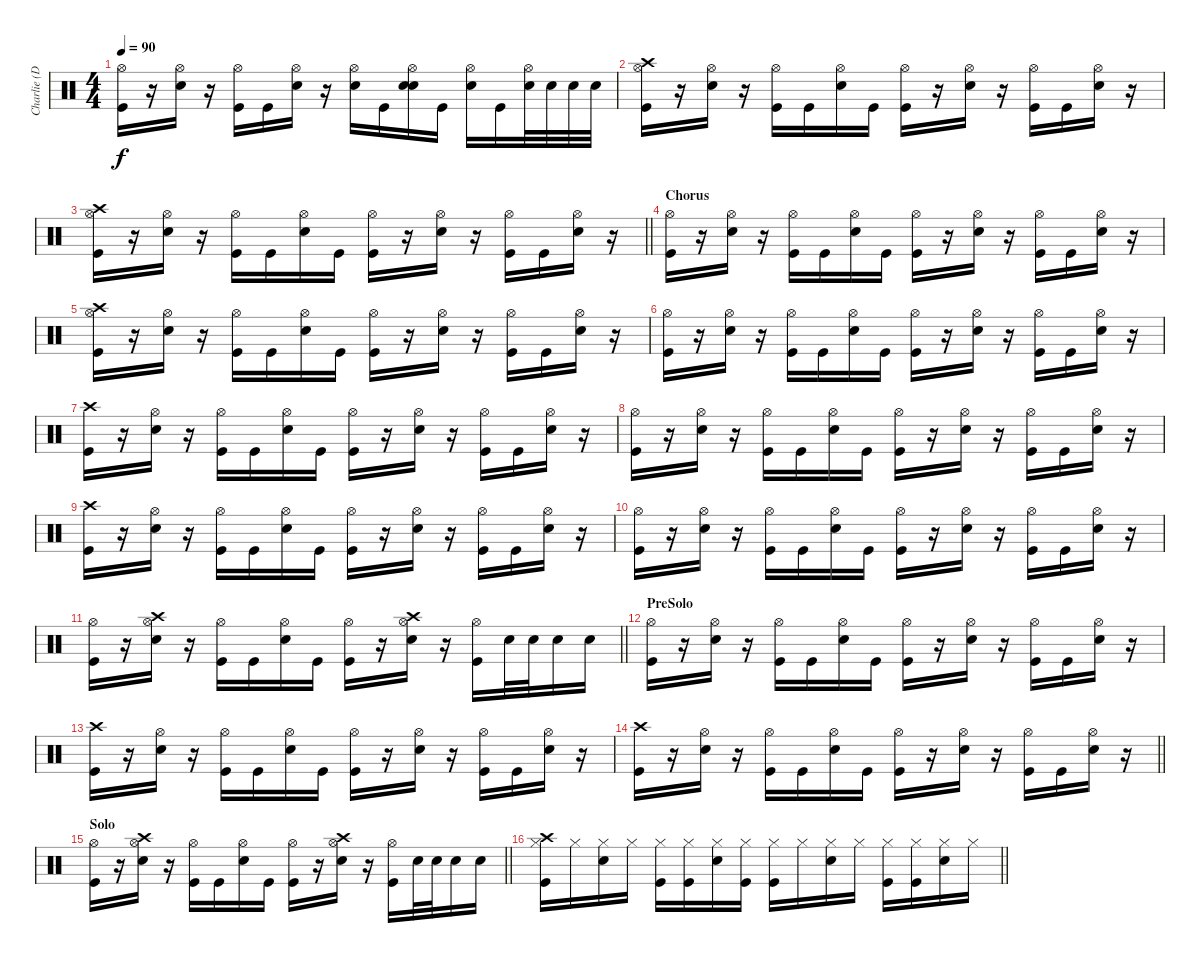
\track ("Charlie (Drums)" "Charlie (D") {instrument percussion}
\staff {score}
\articulation defaults
\ts (4 4)
\tempo 90
\clef neutral
\ks c
("Hi-Hat (open)" "Kick (hit)").16{dy f} r.16 ("Hi-Hat (open)" "Electric Snare (hit)").16 r.16 ("Hi-Hat (open)" "Kick (hit)").16 "Kick (hit)".16 ("Hi-Hat (open)" "Electric Snare (hit)").16 r.16 ("Hi-Hat (open)" "Electric Snare (hit)").16 "Kick (hit)".16 ("Hi-Hat (open)" "Electric Snare (hit)" "Electric Snare (hit)").16 "Kick (hit)".16 ("Hi-Hat (open)" "Electric Snare (hit)").16 "Kick (hit)".16 ("Hi-Hat (open)" "Electric Snare (hit)").32 "Electric Snare (hit)".32 "Electric Snare (hit)".32 "Electric Snare (hit)".32 |
("Crash high (hit)" "Hi-Hat (open)" "Kick (hit)").16 r.16 ("Hi-Hat (open)" "Electric Snare (hit)").16 r.16 ("Hi-Hat (open)" "Kick (hit)").16 "Kick (hit)".16 ("Hi-Hat (open)" "Electric Snare (hit)").16 "Kick (hit)".16 ("Hi-Hat (open)" "Kick (hit)").16 r.16 ("Hi-Hat (open)" "Electric Snare (hit)").16 r.16 ("Hi-Hat (open)" "Kick (hit)").16 "Kick (hit)".16 ("Hi-Hat (open)" "Electric Snare (hit)").16 r.16 |
\barLineRight lightlight
("Crash high (hit)" "Hi-Hat (open)" "Kick (hit)").16 r.16 ("Hi-Hat (open)" "Electric Snare (hit)").16 r.16 ("Hi-Hat (open)" "Kick (hit)").16 "Kick (hit)".16 ("Hi-Hat (open)" "Electric Snare (hit)").16 "Kick (hit)".16 ("Hi-Hat (open)" "Kick (hit)").16 r.16 ("Hi-Hat (open)" "Electric Snare (hit)").16 r.16 ("Hi-Hat (open)" "Kick (hit)").16 "Kick (hit)".16 ("Hi-Hat (open)" "Electric Snare (hit)").16 r.16 |
\section ("" "Chorus")
("Hi-Hat (open)" "Kick (hit)").16 r.16 ("Hi-Hat (open)" "Electric Snare (hit)").16 r.16 ("Hi-Hat (open)" "Kick (hit)").16 "Kick (hit)".16 ("Hi-Hat (open)" "Electric Snare (hit)").16 "Kick (hit)".16 ("Hi-Hat (open)" "Kick (hit)").16 r.16 ("Hi-Hat (open)" "Electric Snare (hit)").16 r.16 ("Hi-Hat (open)" "Kick (hit)").16 "Kick (hit)".16 ("Hi-Hat (open)" "Electric Snare (hit)").16 r.16 |
("Crash high (hit)" "Hi-Hat (open)" "Kick (hit)").16 r.16 ("Hi-Hat (open)" "Electric Snare (hit)").16 r.16 ("Hi-Hat (open)" "Kick (hit)").16 "Kick (hit)".16 ("Hi-Hat (open)" "Electric Snare (hit)").16 "Kick (hit)".16 ("Hi-Hat (open)" "Kick (hit)").16 r.16 ("Hi-Hat (open)" "Electric Snare (hit)").16 r.16 ("Hi-Hat (open)" "Kick (hit)").16 "Kick (hit)".16 ("Hi-Hat (open)" "Electric Snare (hit)").16 r.16 |
("Hi-Hat (open)" "Kick (hit)").16 r.16 ("Hi-Hat (open)" "Electric Snare (hit)").16 r.16 ("Hi-Hat (open)" "Kick (hit)").16 "Kick (hit)".16 ("Hi-Hat (open)" "Electric Snare (hit)").16 "Kick (hit)".16 ("Hi-Hat (open)" "Kick (hit)").16 r.16 ("Hi-Hat (open)" "Electric Snare (hit)").16 r.16 ("Hi-Hat (open)" "Kick (hit)").16 "Kick (hit)".16 ("Hi-Hat (open)" "Electric Snare (hit)").16 r.16 |
("Crash high (hit)" "Kick (hit)").16 r.16 ("Hi-Hat (open)" "Electric Snare (hit)").16 r.16 ("Hi-Hat (open)" "Kick (hit)").16 "Kick (hit)".16 ("Hi-Hat (open)" "Electric Snare (hit)").16 "Kick (hit)".16 ("Hi-Hat (open)" "Kick (hit)").16 r.16 ("Hi-Hat (open)" "Electric Snare (hit)").16 r.16 ("Hi-Hat (open)" "Kick (hit)").16 "Kick (hit)".16 ("Hi-Hat (open)" "Electric Snare (hit)").16 r.16 |
("Hi-Hat (open)" "Kick (hit)").16 r.16 ("Hi-Hat (open)" "Electric Snare (hit)").16 r.16 ("Hi-Hat (open)" "Kick (hit)").16 "Kick (hit)".16 ("Hi-Hat (open)" "Electric Snare (hit)").16 "Kick (hit)".16 ("Hi-Hat (open)" "Kick (hit)").16 r.16 ("Hi-Hat (open)" "Electric Snare (hit)").16 r.16 ("Hi-Hat (open)" "Kick (hit)").16 "Kick (hit)".16 ("Hi-Hat (open)" "Electric Snare (hit)").16 r.16 |
("Crash high (hit)" "Kick (hit)").16 r.16 ("Hi-Hat (open)" "Electric Snare (hit)").16 r.16 ("Hi-Hat (open)" "Kick (hit)").16 "Kick (hit)".16 ("Hi-Hat (open)" "Electric Snare (hit)").16 "Kick (hit)".16 ("Hi-Hat (open)" "Kick (hit)").16 r.16 ("Hi-Hat (open)" "Electric Snare (hit)").16 r.16 ("Hi-Hat (open)" "Kick (hit)").16 "Kick (hit)".16 ("Hi-Hat (open)" "Electric Snare (hit)").16 r.16 |
("Hi-Hat (open)" "Kick (hit)").16 r.16 ("Hi-Hat (open)" "Electric Snare (hit)").16 r.16 ("Hi-Hat (open)" "Kick (hit)").16 "Kick (hit)".16 ("Hi-Hat (open)" "Electric Snare (hit)").16 "Kick (hit)".16 ("Hi-Hat (open)" "Kick (hit)").16 r.16 ("Hi-Hat (open)" "Electric Snare (hit)").16 r.16 ("Hi-Hat (open)" "Kick (hit)").16 "Kick (hit)".16 ("Hi-Hat (open)" "Electric Snare (hit)").16 r.16 |
\barLineRight lightlight
("Hi-Hat (open)" "Kick (hit)").16 r.16 ("Crash high (hit)" "Hi-Hat (open)" "Electric Snare (hit)").16 r.16 ("Hi-Hat (open)" "Kick (hit)").16 "Kick (hit)".16 ("Hi-Hat (open)" "Electric Snare (hit)").16 "Kick (hit)".16 ("Hi-Hat (open)" "Kick (hit)").16 r.16 ("Crash high (hit)" "Hi-Hat (open)" "Electric Snare (hit)").16 r.16 ("Hi-Hat (open)" "Kick (hit)").16 "Electric Snare (hit)".32 "Electric Snare (hit)".32 "Electric Snare (hit)".16 "Electric Snare (hit)".16 |
\section ("" "PreSolo")
("Hi-Hat (open)" "Kick (hit)").16 r.16 ("Hi-Hat (open)" "Electric Snare (hit)").16 r.16 ("Hi-Hat (open)" "Kick (hit)").16 "Kick (hit)".16 ("Hi-Hat (open)" "Electric Snare (hit)").16 "Kick (hit)".16 ("Hi-Hat (open)" "Kick (hit)").16 r.16 ("Hi-Hat (open)" "Electric Snare (hit)").16 r.16 ("Hi-Hat (open)" "Kick (hit)").16 "Kick (hit)".16 ("Hi-Hat (open)" "Electric Snare (hit)").16 r.16 |
("Crash high (hit)" "Kick (hit)").16 r.16 ("Hi-Hat (open)" "Electric Snare (hit)").16 r.16 ("Hi-Hat (open)" "Kick (hit)").16 "Kick (hit)".16 ("Hi-Hat (open)" "Electric Snare (hit)").16 "Kick (hit)".16 ("Hi-Hat (open)" "Kick (hit)").16 r.16 ("Hi-Hat (open)" "Electric Snare (hit)").16 r.16 ("Hi-Hat (open)" "Kick (hit)").16 "Kick (hit)".16 ("Hi-Hat (open)" "Electric Snare (hit)").16 r.16 |
\barLineRight lightlight
("Crash high (hit)" "Kick (hit)").16 r.16 ("Hi-Hat (open)" "Electric Snare (hit)").16 r.16 ("Hi-Hat (open)" "Kick (hit)").16 "Kick (hit)".16 ("Hi-Hat (open)" "Electric Snare (hit)").16 "Kick (hit)".16 ("Hi-Hat (open)" "Kick (hit)").16 r.16 ("Hi-Hat (open)" "Electric Snare (hit)").16 r.16 ("Hi-Hat (open)" "Kick (hit)").16 "Kick (hit)".16 ("Hi-Hat (open)" "Electric Snare (hit)").16 r.16 |
\section ("" "Solo")
\barLineRight lightlight
("Hi-Hat (open)" "Kick (hit)").16 r.16 ("Crash high (hit)" "Hi-Hat (open)" "Electric Snare (hit)").16 r.16 ("Hi-Hat (open)" "Kick (hit)").16 "Kick (hit)".16 ("Hi-Hat (open)" "Electric Snare (hit)").16 "Kick (hit)".16 ("Hi-Hat (open)" "Kick (hit)").16 r.16 ("Crash high (hit)" "Hi-Hat (open)" "Electric Snare (hit)").16 r.16 ("Hi-Hat (open)" "Kick (hit)").16 "Electric Snare (hit)".32 "Electric Snare (hit)".32 "Electric Snare (hit)".16 "Electric Snare (hit)".16 |
\barLineRight lightlight
("Crash high (hit)" "Hi-Hat (closed)" "Kick (hit)").16 "Hi-Hat (closed)".16 ("Hi-Hat (closed)" "Electric Snare (hit)").16 "Hi-Hat (closed)".16 ("Hi-Hat (closed)" "Kick (hit)").16 ("Hi-Hat (closed)" "Kick (hit)").16 ("Hi-Hat (closed)" "Electric Snare (hit)").16 ("Hi-Hat (closed)" "Kick (hit)").16 ("Hi-Hat (closed)" "Kick (hit)").16 "Hi-Hat (closed)".16 ("Hi-Hat (closed)" "Electric Snare (hit)").16 "Hi-Hat (closed)".16 ("Hi-Hat (closed)" "Kick (hit)").16 ("Hi-Hat (closed)" "Kick (hit)").16 ("Hi-Hat (closed)" "Electric Snare (hit)").16 "Hi-Hat (closed)".16
